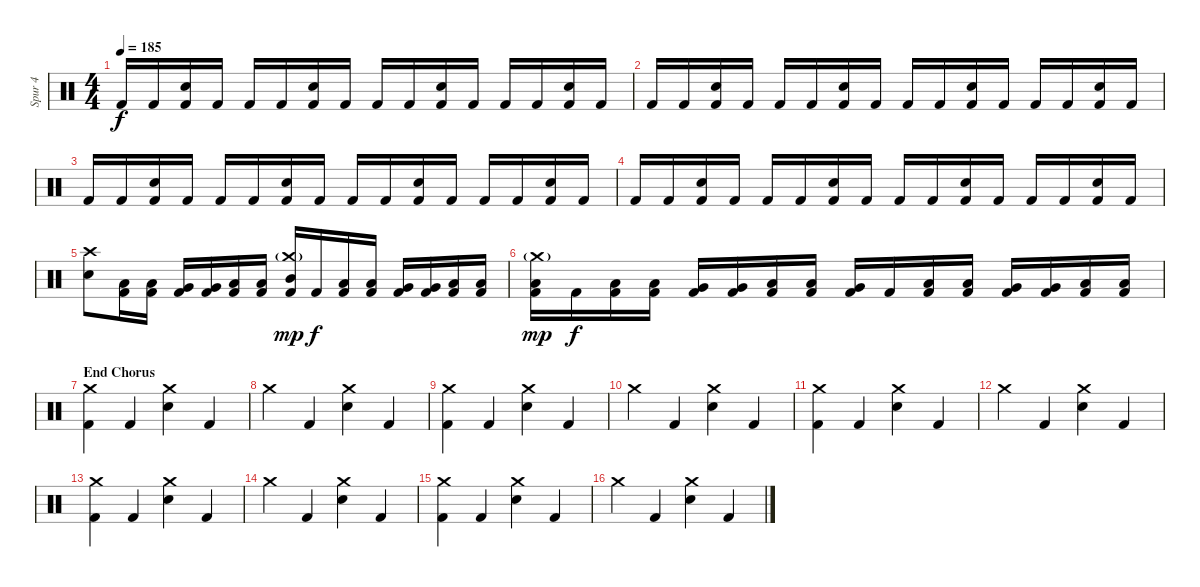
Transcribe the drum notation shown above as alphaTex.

\track ("Spur 4" "Spur 4") {instrument percussion}
\staff {score}
\articulation defaults
\ts (4 4)
\tempo 185
\clef neutral
\ks c "Kick (hit) 2".16{dy f} "Kick (hit) 2".16
("Electric Snare (hit)" "Kick (hit) 2").16 "Kick (hit) 2".16 "Kick (hit) 2".16 "Kick (hit) 2".16 ("Electric Snare (hit)" "Kick (hit) 2").16 "Kick (hit) 2".16 "Kick (hit) 2".16 "Kick (hit) 2".16 ("Electric Snare (hit)" "Kick (hit) 2").16 "Kick (hit) 2".16 "Kick (hit) 2".16 "Kick (hit) 2".16 ("Electric Snare (hit)" "Kick (hit) 2").16 "Kick (hit) 2".16 |
"Kick (hit) 2".16 "Kick (hit) 2".16 ("Electric Snare (hit)" "Kick (hit) 2").16 "Kick (hit) 2".16 "Kick (hit) 2".16 "Kick (hit) 2".16 ("Electric Snare (hit)" "Kick (hit) 2").16 "Kick (hit) 2".16 "Kick (hit) 2".16 "Kick (hit) 2".16 ("Electric Snare (hit)" "Kick (hit) 2").16 "Kick (hit) 2".16 "Kick (hit) 2".16 "Kick (hit) 2".16 ("Electric Snare (hit)" "Kick (hit) 2").16 "Kick (hit) 2".16 |
"Kick (hit) 2".16 "Kick (hit) 2".16 ("Electric Snare (hit)" "Kick (hit) 2").16 "Kick (hit) 2".16 "Kick (hit) 2".16 "Kick (hit) 2".16 ("Electric Snare (hit)" "Kick (hit) 2").16 "Kick (hit) 2".16 "Kick (hit) 2".16 "Kick (hit) 2".16 ("Electric Snare (hit)" "Kick (hit) 2").16 "Kick (hit) 2".16 "Kick (hit) 2".16 "Kick (hit) 2".16 ("Electric Snare (hit)" "Kick (hit) 2").16 "Kick (hit) 2".16 |
"Kick (hit) 2".16 "Kick (hit) 2".16 ("Electric Snare (hit)" "Kick (hit) 2").16 "Kick (hit) 2".16 "Kick (hit) 2".16 "Kick (hit) 2".16 ("Electric Snare (hit)" "Kick (hit) 2").16 "Kick (hit) 2".16 "Kick (hit) 2".16 "Kick (hit) 2".16 ("Electric Snare (hit)" "Kick (hit) 2").16 "Kick (hit) 2".16 "Kick (hit) 2".16 "Kick (hit) 2".16 ("Electric Snare (hit)" "Kick (hit) 2").16 "Kick (hit) 2".16 |
("Crash high (hit)" "Electric Snare (hit)").8 ("Low Tom (hit)" "Kick (hit) 2").16 ("Low Tom (hit)" "Kick (hit) 2").16 ("Very Low Tom (hit)" "Kick (hit) 2").16 ("Very Low Tom (hit)" "Kick (hit) 2").16 ("Low Floor Tom (hit)" "Kick (hit) 2").16 ("Low Floor Tom (hit)" "Kick (hit) 2").16 ("Crash medium (hit)"{g} "Mid Tom (hit)" "Kick (hit) 2").16{dy mp} "Kick (hit) 2".16{dy f} ("Low Tom (hit)" "Kick (hit) 2").16 ("Low Tom (hit)" "Kick (hit) 2").16 ("Very Low Tom (hit)" "Kick (hit) 2").16 ("Very Low Tom (hit)" "Kick (hit) 2").16 ("Low Floor Tom (hit)" "Kick (hit) 2").16 ("Low Floor Tom (hit)" "Kick (hit) 2").16 |
("Crash medium (hit)"{g} "Low Tom (hit)" "Kick (hit) 2").16{dy mp} "Kick (hit) 2".16{dy f} ("Low Tom (hit)" "Kick (hit) 2").16 ("Low Tom (hit)" "Kick (hit) 2").16 ("Very Low Tom (hit)" "Kick (hit) 2").16 ("Very Low Tom (hit)" "Kick (hit) 2").16 ("Low Floor Tom (hit)" "Kick (hit) 2").16 ("Low Floor Tom (hit)" "Kick (hit) 2").16 ("Very Low Tom (hit)" "Kick (hit) 2").16 "Kick (hit) 2".16 ("Low Tom (hit)" "Kick (hit) 2").16 ("Low Tom (hit)" "Kick (hit) 2").16 ("Very Low Tom (hit)" "Kick (hit) 2").16 ("Very Low Tom (hit)" "Kick (hit) 2").16 ("Low Floor Tom (hit)" "Kick (hit) 2").16 ("Low Floor Tom (hit)" "Kick (hit) 2").16 |
\section ("" "End Chorus")
("Crash medium (hit)" "Kick (hit) 2").4 "Kick (hit) 2".4 ("Crash medium (hit)" "Electric Snare (hit)").4 "Kick (hit) 2".4 |
"Crash medium (hit)".4 "Kick (hit) 2".4 ("Crash medium (hit)" "Electric Snare (hit)").4 "Kick (hit) 2".4 |
("Crash medium (hit)" "Kick (hit) 2").4 "Kick (hit) 2".4 ("Crash medium (hit)" "Electric Snare (hit)").4 "Kick (hit) 2".4 |
"Crash medium (hit)".4 "Kick (hit) 2".4 ("Crash medium (hit)" "Electric Snare (hit)").4 "Kick (hit) 2".4 |
("Crash medium (hit)" "Kick (hit) 2").4 "Kick (hit) 2".4 ("Crash medium (hit)" "Electric Snare (hit)").4 "Kick (hit) 2".4 |
"Crash medium (hit)".4 "Kick (hit) 2".4 ("Crash medium (hit)" "Electric Snare (hit)").4 "Kick (hit) 2".4 |
("Crash medium (hit)" "Kick (hit) 2").4 "Kick (hit) 2".4 ("Crash medium (hit)" "Electric Snare (hit)").4 "Kick (hit) 2".4 |
"Crash medium (hit)".4 "Kick (hit) 2".4 ("Crash medium (hit)" "Electric Snare (hit)").4 "Kick (hit) 2".4 |
("Crash medium (hit)" "Kick (hit) 2").4 "Kick (hit) 2".4 ("Crash medium (hit)" "Electric Snare (hit)").4 "Kick (hit) 2".4 |
"Crash medium (hit)".4 "Kick (hit) 2".4 ("Crash medium (hit)" "Electric Snare (hit)").4 "Kick (hit) 2".4
